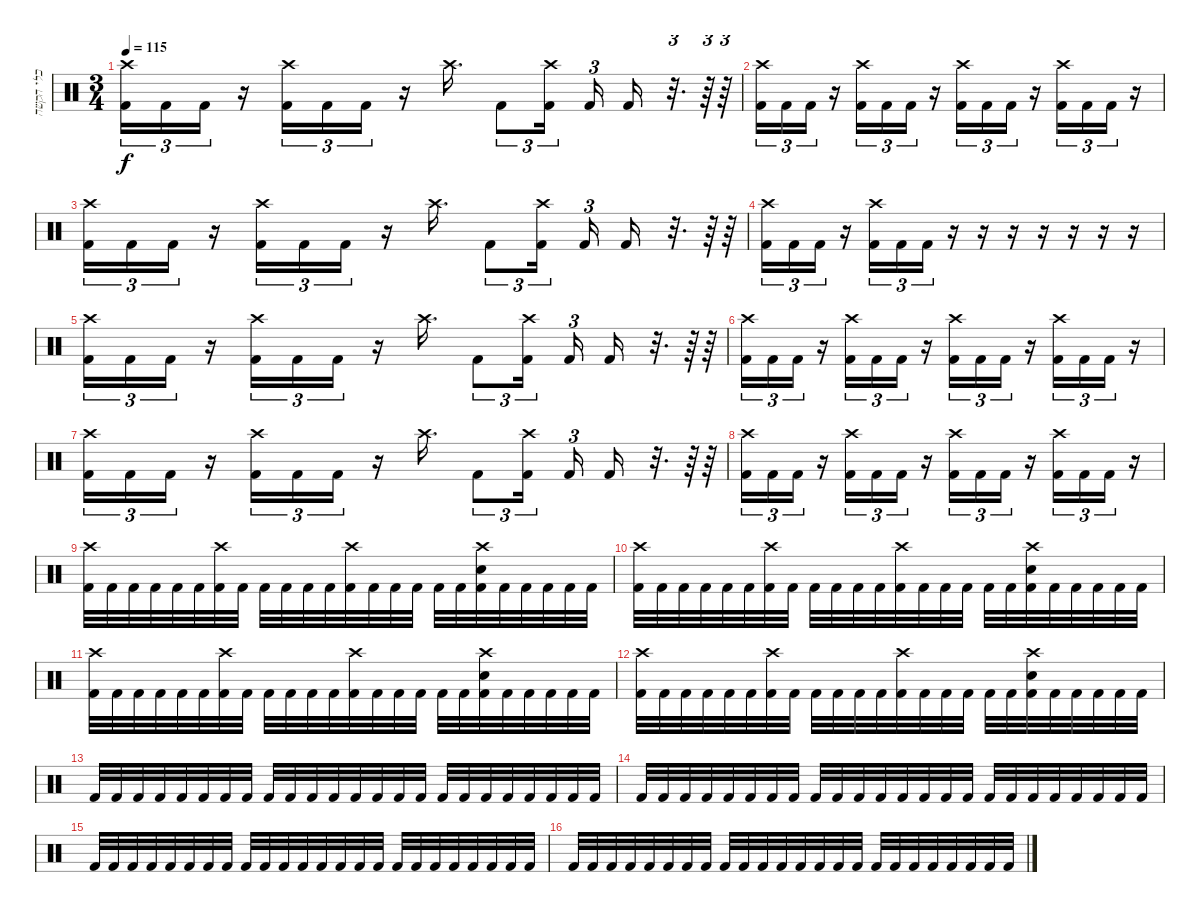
\track ("כלי הקשה" "כלי הקשה") {instrument percussion}
\staff {score}
\articulation defaults
\ts (3 4)
\tempo 115
\clef neutral
\ks c
("Crash high (hit)" "Kick (hit) 2").16{tu (3 2) dy f} "Kick (hit) 2".16{tu (3 2)} "Kick (hit) 2".16{tu (3 2)} r.16 ("Crash high (hit)" "Kick (hit) 2").16{tu (3 2)} "Kick (hit) 2".16{tu (3 2)} "Kick (hit) 2".16{tu (3 2)} r.16 "Crash high (hit)".16{d} "Kick (hit) 2".8{tu (3 2)} ("Crash high (hit)" "Kick (hit) 2").16{tu (3 2) beam splitsecondary} "Kick (hit) 2".16{tu (3 2)} "Kick (hit) 2".16 r.32{d tu (3 2)} r.64{tu (3 2)} r.64{tu (3 2)} |
("Crash high (hit)" "Kick (hit) 2").16{tu (3 2)} "Kick (hit) 2".16{tu (3 2)} "Kick (hit) 2".16{tu (3 2)} r.16 ("Crash high (hit)" "Kick (hit) 2").16{tu (3 2)} "Kick (hit) 2".16{tu (3 2)} "Kick (hit) 2".16{tu (3 2)} r.16 ("Crash high (hit)" "Kick (hit) 2").16{tu (3 2)} "Kick (hit) 2".16{tu (3 2)} "Kick (hit) 2".16{tu (3 2)} r.16 ("Crash high (hit)" "Kick (hit) 2").16{tu (3 2)} "Kick (hit) 2".16{tu (3 2)} "Kick (hit) 2".16{tu (3 2)} r.16 |
("Crash high (hit)" "Kick (hit) 2").16{tu (3 2)} "Kick (hit) 2".16{tu (3 2)} "Kick (hit) 2".16{tu (3 2)} r.16 ("Crash high (hit)" "Kick (hit) 2").16{tu (3 2)} "Kick (hit) 2".16{tu (3 2)} "Kick (hit) 2".16{tu (3 2)} r.16 "Crash high (hit)".16{d} "Kick (hit) 2".8{tu (3 2)} ("Crash high (hit)" "Kick (hit) 2").16{tu (3 2) beam splitsecondary} "Kick (hit) 2".16{tu (3 2)} "Kick (hit) 2".16 r.32{d tu (3 2)} r.64{tu (3 2)} r.64{tu (3 2)} |
("Crash high (hit)" "Kick (hit) 2").16{tu (3 2)} "Kick (hit) 2".16{tu (3 2)} "Kick (hit) 2".16{tu (3 2)} r.16 ("Crash high (hit)" "Kick (hit) 2").16{tu (3 2)} "Kick (hit) 2".16{tu (3 2)} "Kick (hit) 2".16{tu (3 2)} r.16 r.16 r.16 r.16 r.16 r.16 r.16 |
("Crash high (hit)" "Kick (hit) 2").16{tu (3 2)} "Kick (hit) 2".16{tu (3 2)} "Kick (hit) 2".16{tu (3 2)} r.16 ("Crash high (hit)" "Kick (hit) 2").16{tu (3 2)} "Kick (hit) 2".16{tu (3 2)} "Kick (hit) 2".16{tu (3 2)} r.16 "Crash high (hit)".16{d} "Kick (hit) 2".8{tu (3 2)} ("Crash high (hit)" "Kick (hit) 2").16{tu (3 2) beam splitsecondary} "Kick (hit) 2".16{tu (3 2)} "Kick (hit) 2".16 r.32{d tu (3 2)} r.64{tu (3 2)} r.64{tu (3 2)} |
("Crash high (hit)" "Kick (hit) 2").16{tu (3 2)} "Kick (hit) 2".16{tu (3 2)} "Kick (hit) 2".16{tu (3 2)} r.16 ("Crash high (hit)" "Kick (hit) 2").16{tu (3 2)} "Kick (hit) 2".16{tu (3 2)} "Kick (hit) 2".16{tu (3 2)} r.16 ("Crash high (hit)" "Kick (hit) 2").16{tu (3 2)} "Kick (hit) 2".16{tu (3 2)} "Kick (hit) 2".16{tu (3 2)} r.16 ("Crash high (hit)" "Kick (hit) 2").16{tu (3 2)} "Kick (hit) 2".16{tu (3 2)} "Kick (hit) 2".16{tu (3 2)} r.16 |
("Crash high (hit)" "Kick (hit) 2").16{tu (3 2)} "Kick (hit) 2".16{tu (3 2)} "Kick (hit) 2".16{tu (3 2)} r.16 ("Crash high (hit)" "Kick (hit) 2").16{tu (3 2)} "Kick (hit) 2".16{tu (3 2)} "Kick (hit) 2".16{tu (3 2)} r.16 "Crash high (hit)".16{d} "Kick (hit) 2".8{tu (3 2)} ("Crash high (hit)" "Kick (hit) 2").16{tu (3 2) beam splitsecondary} "Kick (hit) 2".16{tu (3 2)} "Kick (hit) 2".16 r.32{d tu (3 2)} r.64{tu (3 2)} r.64{tu (3 2)} |
("Crash high (hit)" "Kick (hit) 2").16{tu (3 2)} "Kick (hit) 2".16{tu (3 2)} "Kick (hit) 2".16{tu (3 2)} r.16 ("Crash high (hit)" "Kick (hit) 2").16{tu (3 2)} "Kick (hit) 2".16{tu (3 2)} "Kick (hit) 2".16{tu (3 2)} r.16 ("Crash high (hit)" "Kick (hit) 2").16{tu (3 2)} "Kick (hit) 2".16{tu (3 2)} "Kick (hit) 2".16{tu (3 2)} r.16 ("Crash high (hit)" "Kick (hit) 2").16{tu (3 2)} "Kick (hit) 2".16{tu (3 2)} "Kick (hit) 2".16{tu (3 2)} r.16 |
("Crash high (hit)" "Kick (hit) 2").32 "Kick (hit) 2".32 "Kick (hit) 2".32 "Kick (hit) 2".32 "Kick (hit) 2".32 "Kick (hit) 2".32 ("Crash high (hit)" "Kick (hit) 2").32 "Kick (hit) 2".32 "Kick (hit) 2".32 "Kick (hit) 2".32 "Kick (hit) 2".32 "Kick (hit) 2".32 ("Crash high (hit)" "Kick (hit) 2").32 "Kick (hit) 2".32 "Kick (hit) 2".32 "Kick (hit) 2".32 "Kick (hit) 2".32 "Kick (hit) 2".32 ("Crash high (hit)" "Snare (hit) 2" "Kick (hit) 2").32 "Kick (hit) 2".32 "Kick (hit) 2".32 "Kick (hit) 2".32 "Kick (hit) 2".32 "Kick (hit) 2".32 |
("Crash high (hit)" "Kick (hit) 2").32 "Kick (hit) 2".32 "Kick (hit) 2".32 "Kick (hit) 2".32 "Kick (hit) 2".32 "Kick (hit) 2".32 ("Crash high (hit)" "Kick (hit) 2").32 "Kick (hit) 2".32 "Kick (hit) 2".32 "Kick (hit) 2".32 "Kick (hit) 2".32 "Kick (hit) 2".32 ("Crash high (hit)" "Kick (hit) 2").32 "Kick (hit) 2".32 "Kick (hit) 2".32 "Kick (hit) 2".32 "Kick (hit) 2".32 "Kick (hit) 2".32 ("Crash high (hit)" "Snare (hit) 2" "Kick (hit) 2").32 "Kick (hit) 2".32 "Kick (hit) 2".32 "Kick (hit) 2".32 "Kick (hit) 2".32 "Kick (hit) 2".32 |
("Crash high (hit)" "Kick (hit) 2").32 "Kick (hit) 2".32 "Kick (hit) 2".32 "Kick (hit) 2".32 "Kick (hit) 2".32 "Kick (hit) 2".32 ("Crash high (hit)" "Kick (hit) 2").32 "Kick (hit) 2".32 "Kick (hit) 2".32 "Kick (hit) 2".32 "Kick (hit) 2".32 "Kick (hit) 2".32 ("Crash high (hit)" "Kick (hit) 2").32 "Kick (hit) 2".32 "Kick (hit) 2".32 "Kick (hit) 2".32 "Kick (hit) 2".32 "Kick (hit) 2".32 ("Crash high (hit)" "Snare (hit) 2" "Kick (hit) 2").32 "Kick (hit) 2".32 "Kick (hit) 2".32 "Kick (hit) 2".32 "Kick (hit) 2".32 "Kick (hit) 2".32 |
("Crash high (hit)" "Kick (hit) 2").32 "Kick (hit) 2".32 "Kick (hit) 2".32 "Kick (hit) 2".32 "Kick (hit) 2".32 "Kick (hit) 2".32 ("Crash high (hit)" "Kick (hit) 2").32 "Kick (hit) 2".32 "Kick (hit) 2".32 "Kick (hit) 2".32 "Kick (hit) 2".32 "Kick (hit) 2".32 ("Crash high (hit)" "Kick (hit) 2").32 "Kick (hit) 2".32 "Kick (hit) 2".32 "Kick (hit) 2".32 "Kick (hit) 2".32 "Kick (hit) 2".32 ("Crash high (hit)" "Snare (hit) 2" "Kick (hit) 2").32 "Kick (hit) 2".32 "Kick (hit) 2".32 "Kick (hit) 2".32 "Kick (hit) 2".32 "Kick (hit) 2".32 |
"Kick (hit) 2".32 "Kick (hit) 2".32 "Kick (hit) 2".32 "Kick (hit) 2".32 "Kick (hit) 2".32 "Kick (hit) 2".32 "Kick (hit) 2".32 "Kick (hit) 2".32 "Kick (hit) 2".32 "Kick (hit) 2".32 "Kick (hit) 2".32 "Kick (hit) 2".32 "Kick (hit) 2".32 "Kick (hit) 2".32 "Kick (hit) 2".32 "Kick (hit) 2".32 "Kick (hit) 2".32 "Kick (hit) 2".32 "Kick (hit) 2".32 "Kick (hit) 2".32 "Kick (hit) 2".32 "Kick (hit) 2".32 "Kick (hit) 2".32 "Kick (hit) 2".32 |
"Kick (hit) 2".32 "Kick (hit) 2".32 "Kick (hit) 2".32 "Kick (hit) 2".32 "Kick (hit) 2".32 "Kick (hit) 2".32 "Kick (hit) 2".32 "Kick (hit) 2".32 "Kick (hit) 2".32 "Kick (hit) 2".32 "Kick (hit) 2".32 "Kick (hit) 2".32 "Kick (hit) 2".32 "Kick (hit) 2".32 "Kick (hit) 2".32 "Kick (hit) 2".32 "Kick (hit) 2".32 "Kick (hit) 2".32 "Kick (hit) 2".32 "Kick (hit) 2".32 "Kick (hit) 2".32 "Kick (hit) 2".32 "Kick (hit) 2".32 "Kick (hit) 2".32 |
"Kick (hit) 2".32 "Kick (hit) 2".32 "Kick (hit) 2".32 "Kick (hit) 2".32 "Kick (hit) 2".32 "Kick (hit) 2".32 "Kick (hit) 2".32 "Kick (hit) 2".32 "Kick (hit) 2".32 "Kick (hit) 2".32 "Kick (hit) 2".32 "Kick (hit) 2".32 "Kick (hit) 2".32 "Kick (hit) 2".32 "Kick (hit) 2".32 "Kick (hit) 2".32 "Kick (hit) 2".32 "Kick (hit) 2".32 "Kick (hit) 2".32 "Kick (hit) 2".32 "Kick (hit) 2".32 "Kick (hit) 2".32 "Kick (hit) 2".32 "Kick (hit) 2".32 |
"Kick (hit) 2".32 "Kick (hit) 2".32 "Kick (hit) 2".32 "Kick (hit) 2".32 "Kick (hit) 2".32 "Kick (hit) 2".32 "Kick (hit) 2".32 "Kick (hit) 2".32 "Kick (hit) 2".32 "Kick (hit) 2".32 "Kick (hit) 2".32 "Kick (hit) 2".32 "Kick (hit) 2".32 "Kick (hit) 2".32 "Kick (hit) 2".32 "Kick (hit) 2".32 "Kick (hit) 2".32 "Kick (hit) 2".32 "Kick (hit) 2".32 "Kick (hit) 2".32 "Kick (hit) 2".32 "Kick (hit) 2".32 "Kick (hit) 2".32 "Kick (hit) 2".32
